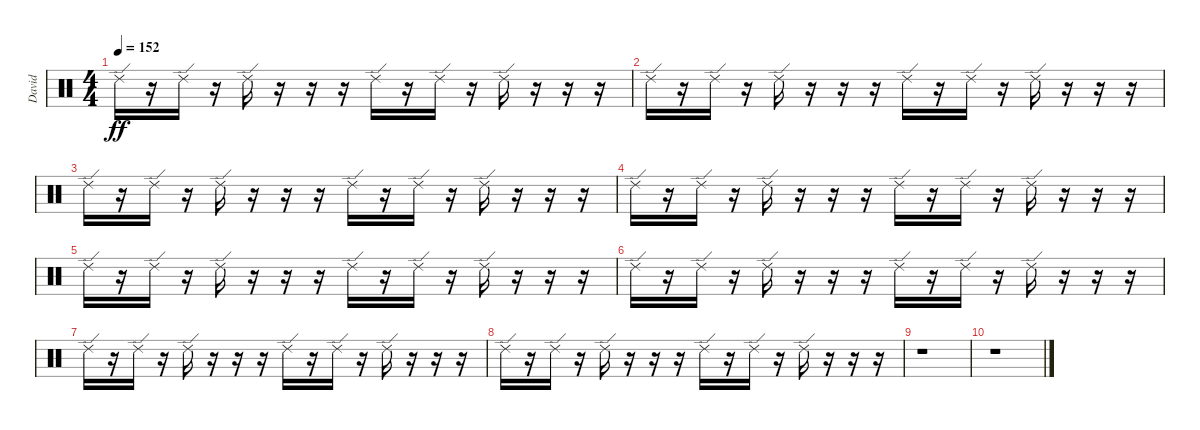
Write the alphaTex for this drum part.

\track ("David" "David") {instrument percussion}
\staff {score}
\articulation defaults
\ts (4 4)
\tempo 152
\clef neutral
\ks c "Ride (edge) 2".16{dy ff}
r.16 "Ride (edge) 2".16 r.16 "Ride (edge) 2".16 r.16 r.16 r.16 "Ride (edge) 2".16 r.16 "Ride (edge) 2".16 r.16 "Ride (edge) 2".16 r.16 r.16 r.16 |
"Ride (edge) 2".16 r.16 "Ride (edge) 2".16 r.16 "Ride (edge) 2".16 r.16 r.16 r.16 "Ride (edge) 2".16 r.16 "Ride (edge) 2".16 r.16 "Ride (edge) 2".16 r.16 r.16 r.16 |
"Ride (edge) 2".16 r.16 "Ride (edge) 2".16 r.16 "Ride (edge) 2".16 r.16 r.16 r.16 "Ride (edge) 2".16 r.16 "Ride (edge) 2".16 r.16 "Ride (edge) 2".16 r.16 r.16 r.16 |
"Ride (edge) 2".16 r.16 "Ride (edge) 2".16 r.16 "Ride (edge) 2".16 r.16 r.16 r.16 "Ride (edge) 2".16 r.16 "Ride (edge) 2".16 r.16 "Ride (edge) 2".16 r.16 r.16 r.16 |
"Ride (edge) 2".16 r.16 "Ride (edge) 2".16 r.16 "Ride (edge) 2".16 r.16 r.16 r.16 "Ride (edge) 2".16 r.16 "Ride (edge) 2".16 r.16 "Ride (edge) 2".16 r.16 r.16 r.16 |
"Ride (edge) 2".16 r.16 "Ride (edge) 2".16 r.16 "Ride (edge) 2".16 r.16 r.16 r.16 "Ride (edge) 2".16 r.16 "Ride (edge) 2".16 r.16 "Ride (edge) 2".16 r.16 r.16 r.16 |
"Ride (edge) 2".16 r.16 "Ride (edge) 2".16 r.16 "Ride (edge) 2".16 r.16 r.16 r.16 "Ride (edge) 2".16 r.16 "Ride (edge) 2".16 r.16 "Ride (edge) 2".16 r.16 r.16 r.16 |
"Ride (edge) 2".16 r.16 "Ride (edge) 2".16 r.16 "Ride (edge) 2".16 r.16 r.16 r.16 "Ride (edge) 2".16 r.16 "Ride (edge) 2".16 r.16 "Ride (edge) 2".16 r.16 r.16 r.16 |
r.1 |
r.1
